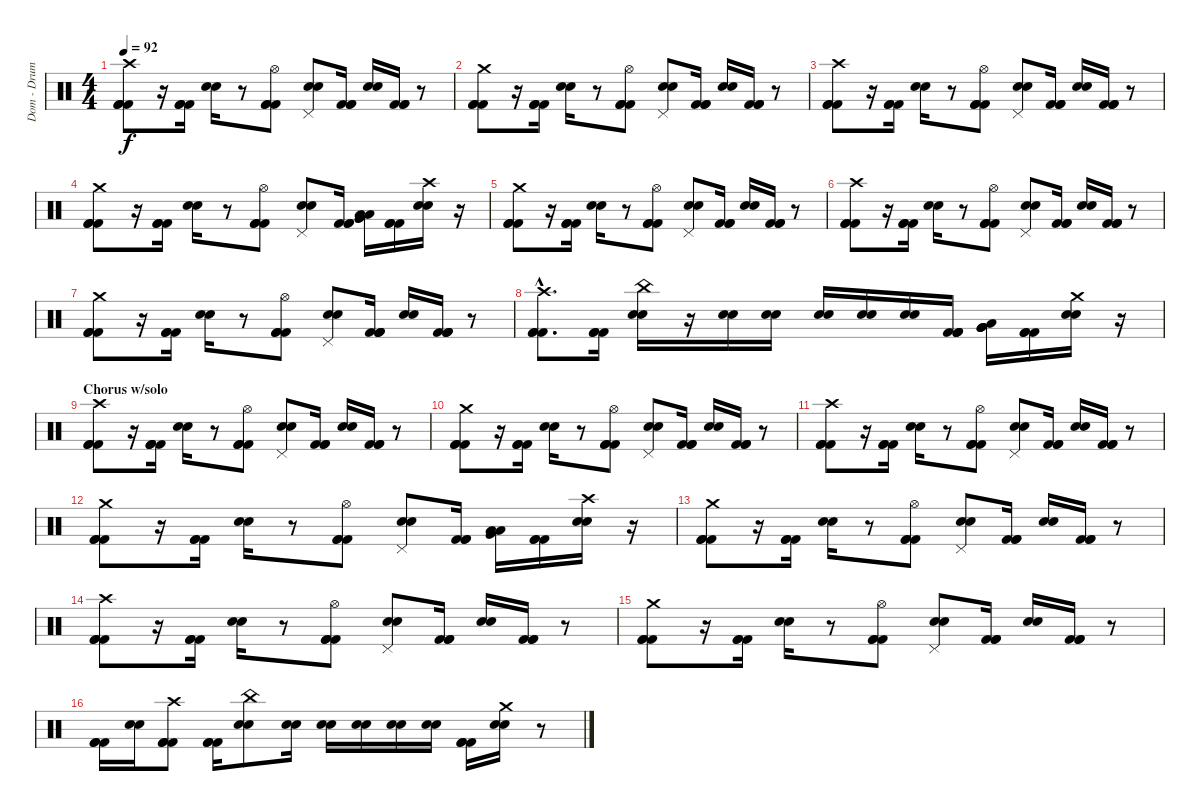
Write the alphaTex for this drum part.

\track ("Dom - Drums " "Dom - Drum") {instrument percussion}
\staff {score}
\articulation defaults
\ts (4 4)
\tempo 92
\clef neutral
\ks c
("Crash high (hit)" "Kick (hit) 2" "Kick (hit) 2" "Kick (hit) 2").8{dy f} r.16 ("Kick (hit) 2" "Kick (hit) 2" "Kick (hit) 2").16 ("Snare (hit) 2" "Electric Snare (hit)").16 r.8 ("Hi-Hat (open)" "Kick (hit) 2" "Kick (hit) 2" "Kick (hit) 2").8 ("Pedal Hi-Hat (hit)" "Snare (hit) 2" "Electric Snare (hit)").8 ("Kick (hit) 2" "Kick (hit) 2" "Kick (hit) 2").16 ("Snare (hit) 2" "Electric Snare (hit)").16 ("Kick (hit) 2" "Kick (hit) 2" "Kick (hit) 2").16 r.8 |
("Crash medium (hit)" "Kick (hit) 2" "Kick (hit) 2" "Kick (hit) 2").8 r.16 ("Kick (hit) 2" "Kick (hit) 2" "Kick (hit) 2").16 ("Snare (hit) 2" "Electric Snare (hit)").16 r.8 ("Hi-Hat (open)" "Kick (hit) 2" "Kick (hit) 2" "Kick (hit) 2").8 ("Pedal Hi-Hat (hit)" "Snare (hit) 2" "Electric Snare (hit)").8 ("Kick (hit) 2" "Kick (hit) 2" "Kick (hit) 2").16 ("Snare (hit) 2" "Electric Snare (hit)").16 ("Kick (hit) 2" "Kick (hit) 2" "Kick (hit) 2").16 r.8 |
("Crash high (hit)" "Kick (hit) 2" "Kick (hit) 2" "Kick (hit) 2").8 r.16 ("Kick (hit) 2" "Kick (hit) 2" "Kick (hit) 2").16 ("Snare (hit) 2" "Electric Snare (hit)").16 r.8 ("Hi-Hat (open)" "Kick (hit) 2" "Kick (hit) 2" "Kick (hit) 2").8 ("Pedal Hi-Hat (hit)" "Snare (hit) 2" "Electric Snare (hit)").8 ("Kick (hit) 2" "Kick (hit) 2" "Kick (hit) 2").16 ("Snare (hit) 2" "Electric Snare (hit)").16 ("Kick (hit) 2" "Kick (hit) 2" "Kick (hit) 2").16 r.8 |
("Crash medium (hit)" "Kick (hit) 2" "Kick (hit) 2" "Kick (hit) 2").8 r.16 ("Kick (hit) 2" "Kick (hit) 2" "Kick (hit) 2").16 ("Snare (hit) 2" "Electric Snare (hit)").16 r.8 ("Hi-Hat (open)" "Kick (hit) 2" "Kick (hit) 2" "Kick (hit) 2").8 ("Pedal Hi-Hat (hit)" "Snare (hit) 2" "Electric Snare (hit)").8 ("Kick (hit) 2" "Kick (hit) 2" "Kick (hit) 2").16 ("Very Low Tom (hit)" "Very Low Tom (hit)" "Low Floor Tom (hit)" "Low Floor Tom (hit)").16 ("Kick (hit) 2" "Kick (hit) 2" "Kick (hit) 2").16 ("Snare (hit) 2" "Electric Snare (hit)" "Crash high (hit)").16 r.16 |
("Crash medium (hit)" "Kick (hit) 2" "Kick (hit) 2" "Kick (hit) 2").8 r.16 ("Kick (hit) 2" "Kick (hit) 2" "Kick (hit) 2").16 ("Snare (hit) 2" "Electric Snare (hit)").16 r.8 ("Hi-Hat (open)" "Kick (hit) 2" "Kick (hit) 2" "Kick (hit) 2").8 ("Pedal Hi-Hat (hit)" "Snare (hit) 2" "Electric Snare (hit)").8 ("Kick (hit) 2" "Kick (hit) 2" "Kick (hit) 2").16 ("Snare (hit) 2" "Electric Snare (hit)").16 ("Kick (hit) 2" "Kick (hit) 2" "Kick (hit) 2").16 r.8 |
("Crash high (hit)" "Kick (hit) 2" "Kick (hit) 2" "Kick (hit) 2").8 r.16 ("Kick (hit) 2" "Kick (hit) 2" "Kick (hit) 2").16 ("Snare (hit) 2" "Electric Snare (hit)").16 r.8 ("Hi-Hat (open)" "Kick (hit) 2" "Kick (hit) 2" "Kick (hit) 2").8 ("Pedal Hi-Hat (hit)" "Snare (hit) 2" "Electric Snare (hit)").8 ("Kick (hit) 2" "Kick (hit) 2" "Kick (hit) 2").16 ("Snare (hit) 2" "Electric Snare (hit)").16 ("Kick (hit) 2" "Kick (hit) 2" "Kick (hit) 2").16 r.8 |
("Crash medium (hit)" "Kick (hit) 2" "Kick (hit) 2" "Kick (hit) 2").8 r.16 ("Kick (hit) 2" "Kick (hit) 2" "Kick (hit) 2").16 ("Snare (hit) 2" "Electric Snare (hit)").16 r.8 ("Hi-Hat (open)" "Kick (hit) 2" "Kick (hit) 2" "Kick (hit) 2").8 ("Pedal Hi-Hat (hit)" "Snare (hit) 2" "Electric Snare (hit)").8 ("Kick (hit) 2" "Kick (hit) 2" "Kick (hit) 2" "Kick (hit) 2").16 ("Snare (hit) 2" "Electric Snare (hit)").16 ("Kick (hit) 2" "Kick (hit) 2" "Kick (hit) 2" "Kick (hit) 2").16 r.8 |
("Crash high (hit)"{hac} "Kick (hit) 2"{hac} "Kick (hit) 2"{hac} "Kick (hit) 2"{hac}).8{d} ("Kick (hit) 2" "Kick (hit) 2" "Kick (hit) 2").16 ("China (hit)" "Snare (hit) 2" "Electric Snare (hit)").16 r.16 ("Snare (hit) 2" "Electric Snare (hit)").16 ("Snare (hit) 2" "Electric Snare (hit)").16 ("Snare (hit) 2" "Electric Snare (hit)").16 ("Snare (hit) 2" "Electric Snare (hit)").16 ("Snare (hit) 2" "Electric Snare (hit)").16 ("Kick (hit) 2" "Kick (hit) 2" "Kick (hit) 2" "Kick (hit) 2").16 ("Low Floor Tom (hit)" "Very Low Tom (hit)" "Very Low Tom (hit)" "Very Low Tom (hit)").16 ("Kick (hit) 2" "Kick (hit) 2" "Kick (hit) 2").16 ("Crash medium (hit)" "Electric Snare (hit)" "Snare (hit) 2").16 r.16 |
\section ("" "Chorus w/solo")
("Crash high (hit)" "Kick (hit) 2" "Kick (hit) 2" "Kick (hit) 2").8 r.16 ("Kick (hit) 2" "Kick (hit) 2" "Kick (hit) 2" "Kick (hit) 2").16 ("Snare (hit) 2" "Electric Snare (hit)").16 r.8 ("Hi-Hat (open)" "Kick (hit) 2" "Kick (hit) 2" "Kick (hit) 2").8 ("Pedal Hi-Hat (hit)" "Snare (hit) 2" "Electric Snare (hit)").8 ("Kick (hit) 2" "Kick (hit) 2" "Kick (hit) 2").16 ("Snare (hit) 2" "Electric Snare (hit)").16 ("Kick (hit) 2" "Kick (hit) 2" "Kick (hit) 2").16 r.8 |
("Crash medium (hit)" "Kick (hit) 2" "Kick (hit) 2" "Kick (hit) 2").8 r.16 ("Kick (hit) 2" "Kick (hit) 2" "Kick (hit) 2").16 ("Snare (hit) 2" "Electric Snare (hit)").16 r.8 ("Hi-Hat (open)" "Kick (hit) 2" "Kick (hit) 2" "Kick (hit) 2").8 ("Pedal Hi-Hat (hit)" "Snare (hit) 2" "Electric Snare (hit)").8 ("Kick (hit) 2" "Kick (hit) 2" "Kick (hit) 2").16 ("Snare (hit) 2" "Electric Snare (hit)").16 ("Kick (hit) 2" "Kick (hit) 2" "Kick (hit) 2").16 r.8 |
("Crash high (hit)" "Kick (hit) 2" "Kick (hit) 2" "Kick (hit) 2").8 r.16 ("Kick (hit) 2" "Kick (hit) 2" "Kick (hit) 2").16 ("Snare (hit) 2" "Electric Snare (hit)").16 r.8 ("Hi-Hat (open)" "Kick (hit) 2" "Kick (hit) 2" "Kick (hit) 2").8 ("Pedal Hi-Hat (hit)" "Snare (hit) 2" "Electric Snare (hit)").8 ("Kick (hit) 2" "Kick (hit) 2" "Kick (hit) 2").16 ("Snare (hit) 2" "Electric Snare (hit)").16 ("Kick (hit) 2" "Kick (hit) 2" "Kick (hit) 2").16 r.8 |
("Crash medium (hit)" "Kick (hit) 2" "Kick (hit) 2" "Kick (hit) 2").8 r.16 ("Kick (hit) 2" "Kick (hit) 2" "Kick (hit) 2").16 ("Snare (hit) 2" "Electric Snare (hit)").16 r.8 ("Hi-Hat (open)" "Kick (hit) 2" "Kick (hit) 2" "Kick (hit) 2").8 ("Pedal Hi-Hat (hit)" "Snare (hit) 2" "Electric Snare (hit)").8 ("Kick (hit) 2" "Kick (hit) 2" "Kick (hit) 2").16 ("Low Floor Tom (hit)" "Very Low Tom (hit)" "Low Tom (hit)").16 ("Kick (hit) 2" "Kick (hit) 2" "Kick (hit) 2").16 ("Snare (hit) 2" "Electric Snare (hit)" "Crash high (hit)").16 r.16 |
("Crash medium (hit)" "Kick (hit) 2" "Kick (hit) 2" "Kick (hit) 2").8 r.16 ("Kick (hit) 2" "Kick (hit) 2" "Kick (hit) 2").16 ("Snare (hit) 2" "Electric Snare (hit)").16 r.8 ("Hi-Hat (open)" "Kick (hit) 2" "Kick (hit) 2" "Kick (hit) 2").8 ("Pedal Hi-Hat (hit)" "Snare (hit) 2" "Electric Snare (hit)").8 ("Kick (hit) 2" "Kick (hit) 2" "Kick (hit) 2").16 ("Snare (hit) 2" "Electric Snare (hit)").16 ("Kick (hit) 2" "Kick (hit) 2" "Kick (hit) 2").16 r.8 |
("Crash high (hit)" "Kick (hit) 2" "Kick (hit) 2" "Kick (hit) 2").8 r.16 ("Kick (hit) 2" "Kick (hit) 2" "Kick (hit) 2").16 ("Snare (hit) 2" "Electric Snare (hit)").16 r.8 ("Hi-Hat (open)" "Kick (hit) 2" "Kick (hit) 2" "Kick (hit) 2").8 ("Pedal Hi-Hat (hit)" "Snare (hit) 2" "Electric Snare (hit)").8 ("Kick (hit) 2" "Kick (hit) 2" "Kick (hit) 2").16 ("Snare (hit) 2" "Electric Snare (hit)").16 ("Kick (hit) 2" "Kick (hit) 2" "Kick (hit) 2").16 r.8 |
("Crash medium (hit)" "Kick (hit) 2" "Kick (hit) 2" "Kick (hit) 2").8 r.16 ("Kick (hit) 2" "Kick (hit) 2" "Kick (hit) 2").16 ("Snare (hit) 2" "Electric Snare (hit)").16 r.8 ("Hi-Hat (open)" "Kick (hit) 2" "Kick (hit) 2" "Kick (hit) 2").8 ("Pedal Hi-Hat (hit)" "Snare (hit) 2" "Electric Snare (hit)").8 ("Kick (hit) 2" "Kick (hit) 2" "Kick (hit) 2").16 ("Snare (hit) 2" "Electric Snare (hit)").16 ("Kick (hit) 2" "Kick (hit) 2" "Kick (hit) 2").16 r.8 |
("Kick (hit) 2" "Kick (hit) 2" "Kick (hit) 2").16 ("Snare (hit) 2" "Electric Snare (hit)").16 ("Kick (hit) 2" "Crash high (hit)" "Kick (hit) 2" "Kick (hit) 2").8 ("Kick (hit) 2" "Kick (hit) 2" "Kick (hit) 2").16 ("China (hit)" "Snare (hit) 2" "Electric Snare (hit)").8 ("Snare (hit) 2" "Electric Snare (hit)").16 ("Snare (hit) 2" "Electric Snare (hit)").16 ("Snare (hit) 2" "Electric Snare (hit)").16 ("Snare (hit) 2" "Electric Snare (hit)").16 ("Snare (hit) 2" "Electric Snare (hit)").16 ("Kick (hit) 2" "Kick (hit) 2" "Kick (hit) 2").16 ("Crash medium (hit)" "Snare (hit) 2" "Electric Snare (hit)").16 r.8
